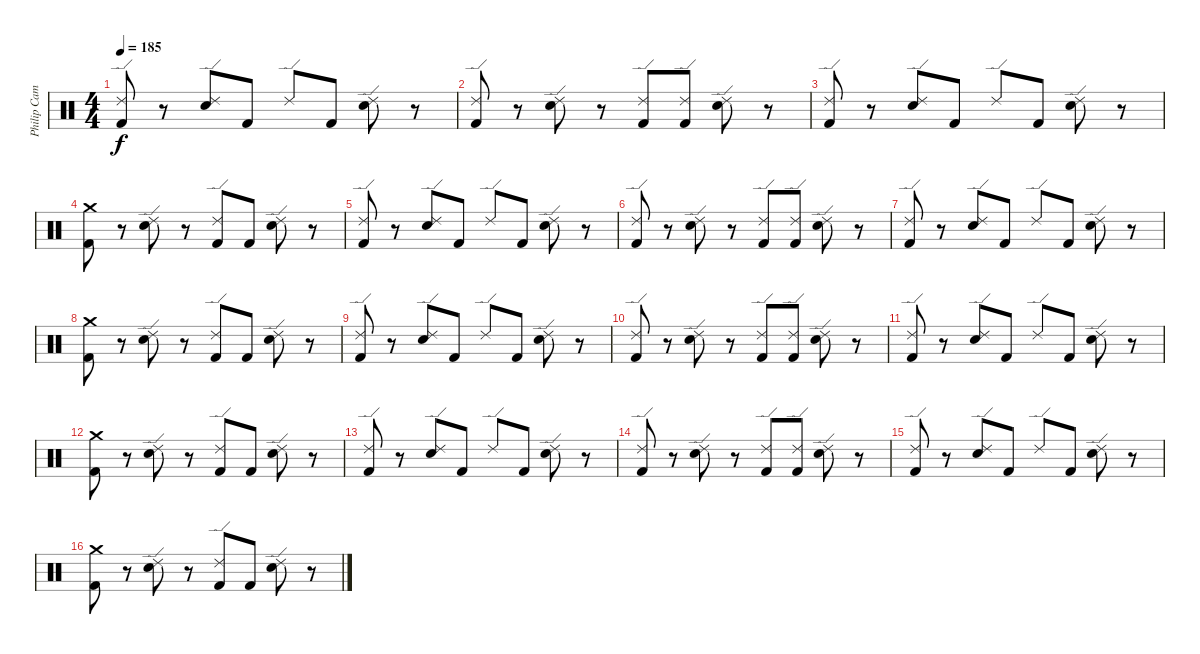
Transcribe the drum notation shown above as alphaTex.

\track ("Philip Campbell" "Philip Cam") {instrument percussion}
\staff {score}
\articulation defaults
\ts (4 4)
\tempo 185
\clef neutral
\ks c
("Ride (edge) 2" "Kick (hit) 2").8{dy f} r.8 ("Ride (edge) 2" "Electric Snare (hit)").8 "Kick (hit) 2".8 "Ride (edge) 2".8 "Kick (hit) 2".8 ("Ride (edge) 2" "Electric Snare (hit)").8 r.8 |
("Ride (edge) 2" "Kick (hit) 2").8 r.8 ("Ride (edge) 2" "Electric Snare (hit)").8 r.8 ("Ride (edge) 2" "Kick (hit) 2").8 ("Ride (edge) 2" "Kick (hit) 2").8 ("Ride (edge) 2" "Electric Snare (hit)").8 r.8 |
("Ride (edge) 2" "Kick (hit) 2").8 r.8 ("Ride (edge) 2" "Electric Snare (hit)").8 "Kick (hit) 2".8 "Ride (edge) 2".8 "Kick (hit) 2".8 ("Ride (edge) 2" "Electric Snare (hit)").8 r.8 |
("Crash medium (hit)" "Kick (hit) 2").8 r.8 ("Ride (edge) 2" "Electric Snare (hit)").8 r.8 ("Ride (edge) 2" "Kick (hit) 2").8 "Kick (hit) 2".8 ("Ride (edge) 2" "Electric Snare (hit)").8 r.8 |
("Ride (edge) 2" "Kick (hit) 2").8 r.8 ("Ride (edge) 2" "Electric Snare (hit)").8 "Kick (hit) 2".8 "Ride (edge) 2".8 "Kick (hit) 2".8 ("Ride (edge) 2" "Electric Snare (hit)").8 r.8 |
("Ride (edge) 2" "Kick (hit) 2").8 r.8 ("Ride (edge) 2" "Electric Snare (hit)").8 r.8 ("Ride (edge) 2" "Kick (hit) 2").8 ("Ride (edge) 2" "Kick (hit) 2").8 ("Ride (edge) 2" "Electric Snare (hit)").8 r.8 |
("Ride (edge) 2" "Kick (hit) 2").8 r.8 ("Ride (edge) 2" "Electric Snare (hit)").8 "Kick (hit) 2".8 "Ride (edge) 2".8 "Kick (hit) 2".8 ("Ride (edge) 2" "Electric Snare (hit)").8 r.8 |
("Crash medium (hit)" "Kick (hit) 2").8 r.8 ("Ride (edge) 2" "Electric Snare (hit)").8 r.8 ("Ride (edge) 2" "Kick (hit) 2").8 "Kick (hit) 2".8 ("Ride (edge) 2" "Electric Snare (hit)").8 r.8 |
("Ride (edge) 2" "Kick (hit) 2").8 r.8 ("Ride (edge) 2" "Electric Snare (hit)").8 "Kick (hit) 2".8 "Ride (edge) 2".8 "Kick (hit) 2".8 ("Ride (edge) 2" "Electric Snare (hit)").8 r.8 |
("Ride (edge) 2" "Kick (hit) 2").8 r.8 ("Ride (edge) 2" "Electric Snare (hit)").8 r.8 ("Ride (edge) 2" "Kick (hit) 2").8 ("Ride (edge) 2" "Kick (hit) 2").8 ("Ride (edge) 2" "Electric Snare (hit)").8 r.8 |
("Ride (edge) 2" "Kick (hit) 2").8 r.8 ("Ride (edge) 2" "Electric Snare (hit)").8 "Kick (hit) 2".8 "Ride (edge) 2".8 "Kick (hit) 2".8 ("Ride (edge) 2" "Electric Snare (hit)").8 r.8 |
("Crash medium (hit)" "Kick (hit) 2").8 r.8 ("Ride (edge) 2" "Electric Snare (hit)").8 r.8 ("Ride (edge) 2" "Kick (hit) 2").8 "Kick (hit) 2".8 ("Ride (edge) 2" "Electric Snare (hit)").8 r.8 |
("Ride (edge) 2" "Kick (hit) 2").8 r.8 ("Ride (edge) 2" "Electric Snare (hit)").8 "Kick (hit) 2".8 "Ride (edge) 2".8 "Kick (hit) 2".8 ("Ride (edge) 2" "Electric Snare (hit)").8 r.8 |
("Ride (edge) 2" "Kick (hit) 2").8 r.8 ("Ride (edge) 2" "Electric Snare (hit)").8 r.8 ("Ride (edge) 2" "Kick (hit) 2").8 ("Ride (edge) 2" "Kick (hit) 2").8 ("Ride (edge) 2" "Electric Snare (hit)").8 r.8 |
("Ride (edge) 2" "Kick (hit) 2").8 r.8 ("Ride (edge) 2" "Electric Snare (hit)").8 "Kick (hit) 2".8 "Ride (edge) 2".8 "Kick (hit) 2".8 ("Ride (edge) 2" "Electric Snare (hit)").8 r.8 |
("Crash medium (hit)" "Kick (hit) 2").8 r.8 ("Ride (edge) 2" "Electric Snare (hit)").8 r.8 ("Ride (edge) 2" "Kick (hit) 2").8 "Kick (hit) 2".8 ("Ride (edge) 2" "Electric Snare (hit)").8 r.8
